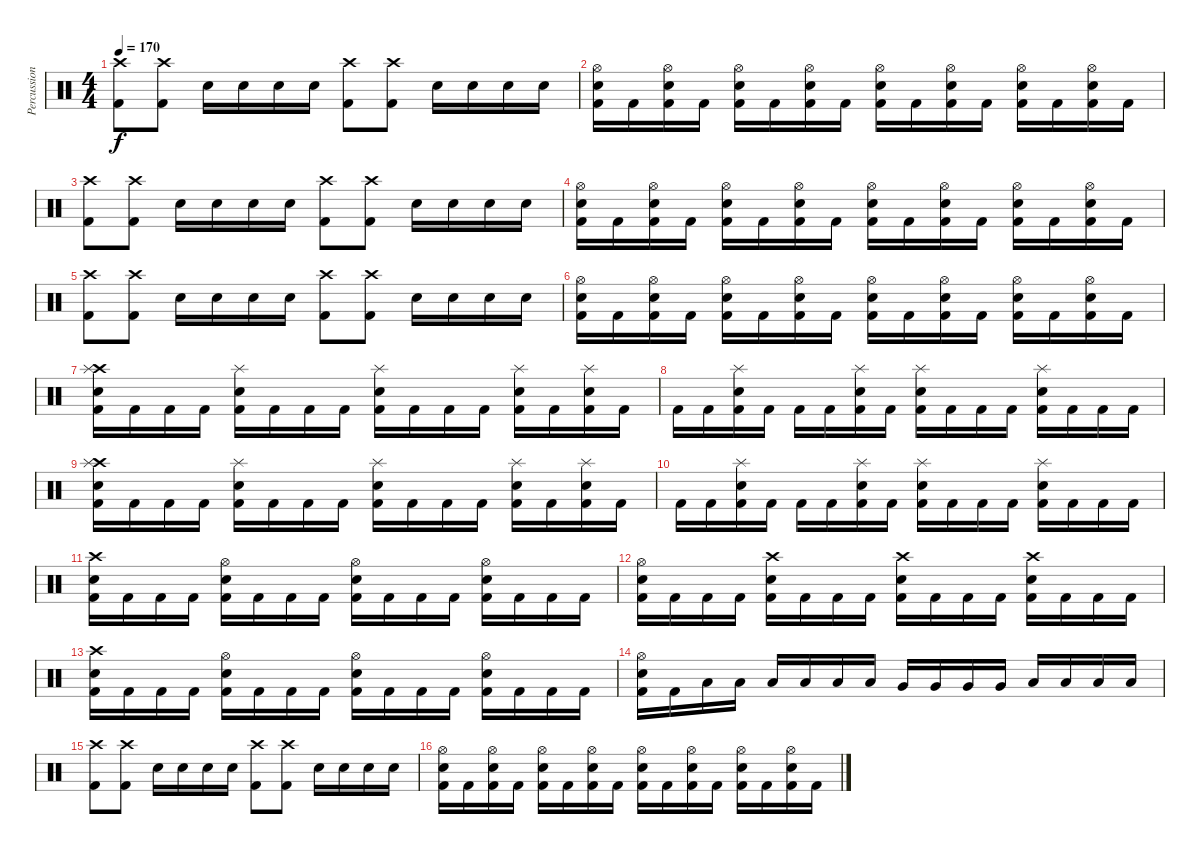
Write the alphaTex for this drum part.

\track ("Percussion" "Percussion") {instrument percussion}
\staff {score}
\articulation defaults
\ts (4 4)
\tempo 170
\clef neutral
\ks c
("Crash high (hit)" "Kick (hit) 2").8{dy f} ("Crash high (hit)" "Kick (hit) 2").8 "Electric Snare (hit)".16 "Electric Snare (hit)".16 "Electric Snare (hit)".16 "Electric Snare (hit)".16 ("Crash high (hit)" "Kick (hit) 2").8 ("Crash high (hit)" "Kick (hit) 2").8 "Electric Snare (hit)".16 "Electric Snare (hit)".16 "Electric Snare (hit)".16 "Electric Snare (hit)".16 |
("Hi-Hat (open)" "Electric Snare (hit)" "Kick (hit) 2").16 "Kick (hit) 2".16 ("Hi-Hat (open)" "Electric Snare (hit)" "Kick (hit) 2").16 "Kick (hit) 2".16 ("Hi-Hat (open)" "Electric Snare (hit)" "Kick (hit) 2").16 "Kick (hit) 2".16 ("Hi-Hat (open)" "Electric Snare (hit)" "Kick (hit) 2").16 "Kick (hit) 2".16 ("Hi-Hat (open)" "Electric Snare (hit)" "Kick (hit) 2").16 "Kick (hit) 2".16 ("Hi-Hat (open)" "Electric Snare (hit)" "Kick (hit) 2").16 "Kick (hit) 2".16 ("Hi-Hat (open)" "Electric Snare (hit)" "Kick (hit) 2").16 "Kick (hit) 2".16 ("Hi-Hat (open)" "Electric Snare (hit)" "Kick (hit) 2").16 "Kick (hit) 2".16 |
("Crash high (hit)" "Kick (hit) 2").8 ("Crash high (hit)" "Kick (hit) 2").8 "Electric Snare (hit)".16 "Electric Snare (hit)".16 "Electric Snare (hit)".16 "Electric Snare (hit)".16 ("Crash high (hit)" "Kick (hit) 2").8 ("Crash high (hit)" "Kick (hit) 2").8 "Electric Snare (hit)".16 "Electric Snare (hit)".16 "Electric Snare (hit)".16 "Electric Snare (hit)".16 |
("Hi-Hat (open)" "Electric Snare (hit)" "Kick (hit) 2").16 "Kick (hit) 2".16 ("Hi-Hat (open)" "Electric Snare (hit)" "Kick (hit) 2").16 "Kick (hit) 2".16 ("Hi-Hat (open)" "Electric Snare (hit)" "Kick (hit) 2").16 "Kick (hit) 2".16 ("Hi-Hat (open)" "Electric Snare (hit)" "Kick (hit) 2").16 "Kick (hit) 2".16 ("Hi-Hat (open)" "Electric Snare (hit)" "Kick (hit) 2").16 "Kick (hit) 2".16 ("Hi-Hat (open)" "Electric Snare (hit)" "Kick (hit) 2").16 "Kick (hit) 2".16 ("Hi-Hat (open)" "Electric Snare (hit)" "Kick (hit) 2").16 "Kick (hit) 2".16 ("Hi-Hat (open)" "Electric Snare (hit)" "Kick (hit) 2").16 "Kick (hit) 2".16 |
("Crash high (hit)" "Kick (hit) 2").8 ("Crash high (hit)" "Kick (hit) 2").8 "Electric Snare (hit)".16 "Electric Snare (hit)".16 "Electric Snare (hit)".16 "Electric Snare (hit)".16 ("Crash high (hit)" "Kick (hit) 2").8 ("Crash high (hit)" "Kick (hit) 2").8 "Electric Snare (hit)".16 "Electric Snare (hit)".16 "Electric Snare (hit)".16 "Electric Snare (hit)".16 |
("Hi-Hat (open)" "Electric Snare (hit)" "Kick (hit) 2").16 "Kick (hit) 2".16 ("Hi-Hat (open)" "Electric Snare (hit)" "Kick (hit) 2").16 "Kick (hit) 2".16 ("Hi-Hat (open)" "Electric Snare (hit)" "Kick (hit) 2").16 "Kick (hit) 2".16 ("Hi-Hat (open)" "Electric Snare (hit)" "Kick (hit) 2").16 "Kick (hit) 2".16 ("Hi-Hat (open)" "Electric Snare (hit)" "Kick (hit) 2").16 "Kick (hit) 2".16 ("Hi-Hat (open)" "Electric Snare (hit)" "Kick (hit) 2").16 "Kick (hit) 2".16 ("Hi-Hat (open)" "Electric Snare (hit)" "Kick (hit) 2").16 "Kick (hit) 2".16 ("Hi-Hat (open)" "Electric Snare (hit)" "Kick (hit) 2").16 "Kick (hit) 2".16 |
("Crash high (hit)" "Splash (hit)" "Electric Snare (hit)" "Kick (hit) 2").16 "Kick (hit) 2".16 "Kick (hit) 2".16 "Kick (hit) 2".16 ("Splash (hit)" "Electric Snare (hit)" "Kick (hit) 2").16 "Kick (hit) 2".16 "Kick (hit) 2".16 "Kick (hit) 2".16 ("Splash (hit)" "Electric Snare (hit)" "Kick (hit) 2").16 "Kick (hit) 2".16 "Kick (hit) 2".16 "Kick (hit) 2".16 ("Splash (hit)" "Electric Snare (hit)" "Kick (hit) 2").16 "Kick (hit) 2".16 ("Splash (hit)" "Electric Snare (hit)" "Kick (hit) 2").16 "Kick (hit) 2".16 |
"Kick (hit) 2".16 "Kick (hit) 2".16 ("Splash (hit)" "Electric Snare (hit)" "Kick (hit) 2").16 "Kick (hit) 2".16 "Kick (hit) 2".16 "Kick (hit) 2".16 ("Splash (hit)" "Electric Snare (hit)" "Kick (hit) 2").16 "Kick (hit) 2".16 ("Splash (hit)" "Electric Snare (hit)" "Kick (hit) 2").16 "Kick (hit) 2".16 "Kick (hit) 2".16 "Kick (hit) 2".16 ("Splash (hit)" "Electric Snare (hit)" "Kick (hit) 2").16 "Kick (hit) 2".16 "Kick (hit) 2".16 "Kick (hit) 2".16 |
("Crash high (hit)" "Splash (hit)" "Electric Snare (hit)" "Kick (hit) 2").16 "Kick (hit) 2".16 "Kick (hit) 2".16 "Kick (hit) 2".16 ("Splash (hit)" "Electric Snare (hit)" "Kick (hit) 2").16 "Kick (hit) 2".16 "Kick (hit) 2".16 "Kick (hit) 2".16 ("Splash (hit)" "Electric Snare (hit)" "Kick (hit) 2").16 "Kick (hit) 2".16 "Kick (hit) 2".16 "Kick (hit) 2".16 ("Splash (hit)" "Electric Snare (hit)" "Kick (hit) 2").16 "Kick (hit) 2".16 ("Splash (hit)" "Electric Snare (hit)" "Kick (hit) 2").16 "Kick (hit) 2".16 |
"Kick (hit) 2".16 "Kick (hit) 2".16 ("Splash (hit)" "Electric Snare (hit)" "Kick (hit) 2").16 "Kick (hit) 2".16 "Kick (hit) 2".16 "Kick (hit) 2".16 ("Splash (hit)" "Electric Snare (hit)" "Kick (hit) 2").16 "Kick (hit) 2".16 ("Splash (hit)" "Electric Snare (hit)" "Kick (hit) 2").16 "Kick (hit) 2".16 "Kick (hit) 2".16 "Kick (hit) 2".16 ("Splash (hit)" "Electric Snare (hit)" "Kick (hit) 2").16 "Kick (hit) 2".16 "Kick (hit) 2".16 "Kick (hit) 2".16 |
("Crash high (hit)" "Electric Snare (hit)" "Kick (hit) 2").16 "Kick (hit) 2".16 "Kick (hit) 2".16 "Kick (hit) 2".16 ("Hi-Hat (open)" "Electric Snare (hit)" "Kick (hit) 2").16 "Kick (hit) 2".16 "Kick (hit) 2".16 "Kick (hit) 2".16 ("Hi-Hat (open)" "Electric Snare (hit)" "Kick (hit) 2").16 "Kick (hit) 2".16 "Kick (hit) 2".16 "Kick (hit) 2".16 ("Hi-Hat (open)" "Electric Snare (hit)" "Kick (hit) 2").16 "Kick (hit) 2".16 "Kick (hit) 2".16 "Kick (hit) 2".16 |
("Hi-Hat (open)" "Electric Snare (hit)" "Kick (hit) 2").16 "Kick (hit) 2".16 "Kick (hit) 2".16 "Kick (hit) 2".16 ("Crash high (hit)" "Electric Snare (hit)" "Kick (hit) 2").16 "Kick (hit) 2".16 "Kick (hit) 2".16 "Kick (hit) 2".16 ("Crash high (hit)" "Electric Snare (hit)" "Kick (hit) 2").16 "Kick (hit) 2".16 "Kick (hit) 2".16 "Kick (hit) 2".16 ("Crash high (hit)" "Electric Snare (hit)" "Kick (hit) 2").16 "Kick (hit) 2".16 "Kick (hit) 2".16 "Kick (hit) 2".16 |
("Crash high (hit)" "Electric Snare (hit)" "Kick (hit) 2").16 "Kick (hit) 2".16 "Kick (hit) 2".16 "Kick (hit) 2".16 ("Hi-Hat (open)" "Electric Snare (hit)" "Kick (hit) 2").16 "Kick (hit) 2".16 "Kick (hit) 2".16 "Kick (hit) 2".16 ("Hi-Hat (open)" "Electric Snare (hit)" "Kick (hit) 2").16 "Kick (hit) 2".16 "Kick (hit) 2".16 "Kick (hit) 2".16 ("Hi-Hat (open)" "Electric Snare (hit)" "Kick (hit) 2").16 "Kick (hit) 2".16 "Kick (hit) 2".16 "Kick (hit) 2".16 |
("Hi-Hat (open)" "Electric Snare (hit)" "Kick (hit) 2").16 "Kick (hit) 2".16 "Low Tom (hit)".16 "Low Tom (hit)".16 "Low Tom (hit)".16 "Low Tom (hit)".16 "Low Tom (hit)".16 "Low Tom (hit)".16 "Very Low Tom (hit)".16 "Very Low Tom (hit)".16 "Very Low Tom (hit)".16 "Very Low Tom (hit)".16 "Low Floor Tom (hit)".16 "Low Floor Tom (hit)".16 "Low Floor Tom (hit)".16 "Low Floor Tom (hit)".16 |
("Crash high (hit)" "Kick (hit) 2").8 ("Crash high (hit)" "Kick (hit) 2").8 "Electric Snare (hit)".16 "Electric Snare (hit)".16 "Electric Snare (hit)".16 "Electric Snare (hit)".16 ("Crash high (hit)" "Kick (hit) 2").8 ("Crash high (hit)" "Kick (hit) 2").8 "Electric Snare (hit)".16 "Electric Snare (hit)".16 "Electric Snare (hit)".16 "Electric Snare (hit)".16 |
("Hi-Hat (open)" "Electric Snare (hit)" "Kick (hit) 2").16 "Kick (hit) 2".16 ("Hi-Hat (open)" "Electric Snare (hit)" "Kick (hit) 2").16 "Kick (hit) 2".16 ("Hi-Hat (open)" "Electric Snare (hit)" "Kick (hit) 2").16 "Kick (hit) 2".16 ("Hi-Hat (open)" "Electric Snare (hit)" "Kick (hit) 2").16 "Kick (hit) 2".16 ("Hi-Hat (open)" "Electric Snare (hit)" "Kick (hit) 2").16 "Kick (hit) 2".16 ("Hi-Hat (open)" "Electric Snare (hit)" "Kick (hit) 2").16 "Kick (hit) 2".16 ("Hi-Hat (open)" "Electric Snare (hit)" "Kick (hit) 2").16 "Kick (hit) 2".16 ("Hi-Hat (open)" "Electric Snare (hit)" "Kick (hit) 2").16 "Kick (hit) 2".16
